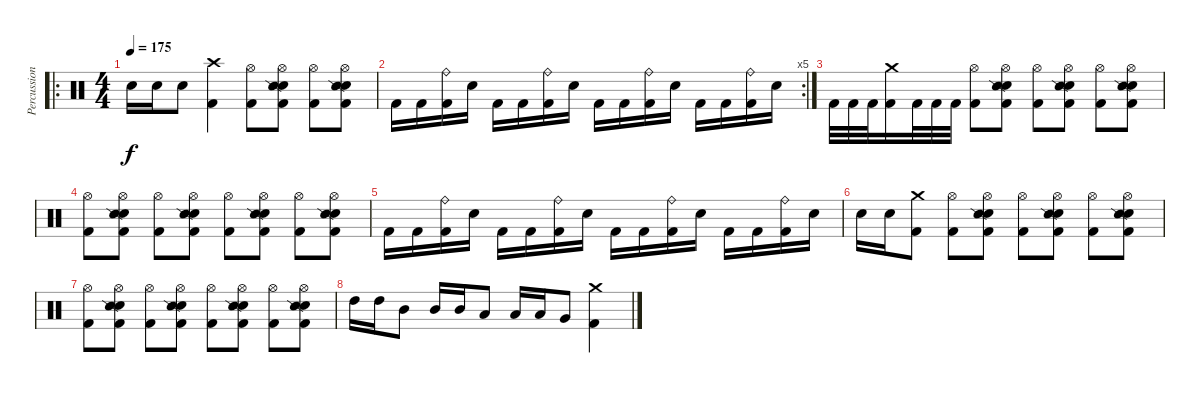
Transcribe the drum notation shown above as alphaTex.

\track ("Percussion" "Percussion") {instrument percussion}
\staff {score}
\articulation defaults
\ro
\ts (4 4)
\tempo 175
\clef neutral
\ks c "Electric Snare (hit)".16{dy f} "Electric Snare (hit)".16 "Electric Snare (hit)".8
("Crash high (hit)" "Kick (hit) 2").4 ("Hi-Hat (open)" "Kick (hit) 2").8 ("Hi-Hat (open)" "Electric Snare (hit)" "Snare (side stick) 2" "Kick (hit) 2").8 ("Hi-Hat (open)" "Kick (hit) 2").8 ("Hi-Hat (open)" "Electric Snare (hit)" "Snare (side stick) 2" "Kick (hit) 2").8 |
\rc 5 "Kick (hit) 2".16 "Kick (hit) 2".16
("Ride (bell)" "Kick (hit) 2").16 "Electric Snare (hit)".16 "Kick (hit) 2".16 "Kick (hit) 2".16 ("Ride (bell)" "Kick (hit) 2").16 "Electric Snare (hit)".16 "Kick (hit) 2".16 "Kick (hit) 2".16 ("Ride (bell)" "Kick (hit) 2").16 "Electric Snare (hit)".16 "Kick (hit) 2".16 "Kick (hit) 2".16 ("Ride (bell)" "Kick (hit) 2").16 "Electric Snare (hit)".16 |
"Kick (hit) 2".32 "Kick (hit) 2".32 "Kick (hit) 2".32 ("Crash medium (hit)" "Kick (hit) 2").16 "Kick (hit) 2".32 "Kick (hit) 2".32 "Kick (hit) 2".32 ("Hi-Hat (open)" "Kick (hit) 2").8 ("Hi-Hat (open)" "Electric Snare (hit)" "Snare (side stick) 2" "Kick (hit) 2").8 ("Hi-Hat (open)" "Kick (hit) 2").8 ("Hi-Hat (open)" "Electric Snare (hit)" "Snare (side stick) 2" "Kick (hit) 2").8 ("Hi-Hat (open)" "Kick (hit) 2").8 ("Hi-Hat (open)" "Electric Snare (hit)" "Snare (side stick) 2" "Kick (hit) 2").8 |
("Hi-Hat (open)" "Kick (hit) 2").8 ("Hi-Hat (open)" "Electric Snare (hit)" "Snare (side stick) 2" "Kick (hit) 2").8 ("Hi-Hat (open)" "Kick (hit) 2").8 ("Hi-Hat (open)" "Electric Snare (hit)" "Snare (side stick) 2" "Kick (hit) 2").8 ("Hi-Hat (open)" "Kick (hit) 2").8 ("Hi-Hat (open)" "Electric Snare (hit)" "Snare (side stick) 2" "Kick (hit) 2").8 ("Hi-Hat (open)" "Kick (hit) 2").8 ("Hi-Hat (open)" "Electric Snare (hit)" "Snare (side stick) 2" "Kick (hit) 2").8 |
"Kick (hit) 2".16 "Kick (hit) 2".16 ("Ride (bell)" "Kick (hit) 2").16 "Electric Snare (hit)".16 "Kick (hit) 2".16 "Kick (hit) 2".16 ("Ride (bell)" "Kick (hit) 2").16 "Electric Snare (hit)".16 "Kick (hit) 2".16 "Kick (hit) 2".16 ("Ride (bell)" "Kick (hit) 2").16 "Electric Snare (hit)".16 "Kick (hit) 2".16 "Kick (hit) 2".16 ("Ride (bell)" "Kick (hit) 2").16 "Electric Snare (hit)".16 |
"Electric Snare (hit)".16 "Electric Snare (hit)".16 ("Crash medium (hit)" "Kick (hit) 2").8 ("Hi-Hat (open)" "Kick (hit) 2").8 ("Hi-Hat (open)" "Electric Snare (hit)" "Snare (side stick) 2" "Kick (hit) 2").8 ("Hi-Hat (open)" "Kick (hit) 2").8 ("Hi-Hat (open)" "Electric Snare (hit)" "Snare (side stick) 2" "Kick (hit) 2").8 ("Hi-Hat (open)" "Kick (hit) 2").8 ("Hi-Hat (open)" "Electric Snare (hit)" "Snare (side stick) 2" "Kick (hit) 2").8 |
("Hi-Hat (open)" "Kick (hit) 2").8 ("Hi-Hat (open)" "Electric Snare (hit)" "Snare (side stick) 2" "Kick (hit) 2").8 ("Hi-Hat (open)" "Kick (hit) 2").8 ("Hi-Hat (open)" "Electric Snare (hit)" "Snare (side stick) 2" "Kick (hit) 2").8 ("Hi-Hat (open)" "Kick (hit) 2").8 ("Hi-Hat (open)" "Electric Snare (hit)" "Snare (side stick) 2" "Kick (hit) 2").8 ("Hi-Hat (open)" "Kick (hit) 2").8 ("Hi-Hat (open)" "Electric Snare (hit)" "Snare (side stick) 2" "Kick (hit) 2").8 |
"High Tom (hit)".16 "High Tom (hit)".16 "Mid Tom (hit)".8 "Mid Tom (hit)".16 "Mid Tom (hit)".16 "Low Tom (hit)".8 "Low Tom (hit)".16 "Low Tom (hit)".16 "Very Low Tom (hit)".8 ("Crash medium (hit)" "Kick (hit) 2").4
